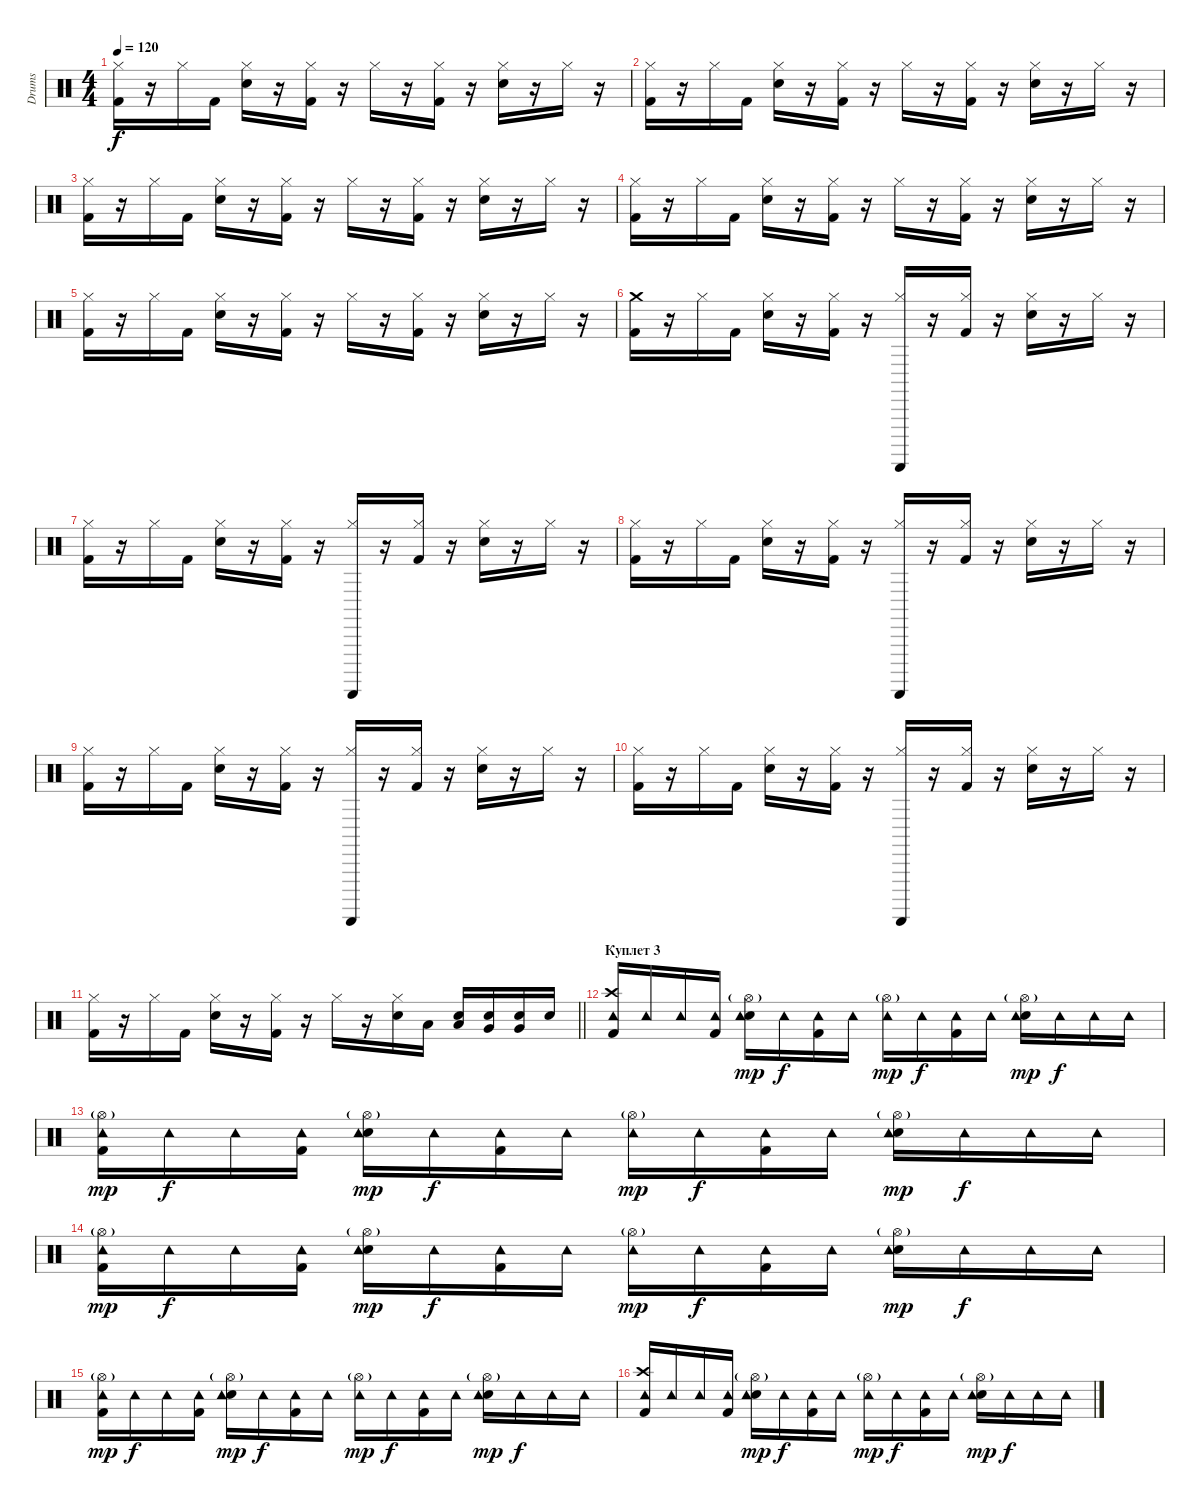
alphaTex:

\track ("Drums" "Drums") {instrument percussion}
\staff {score}
\articulation defaults
\ts (4 4)
\tempo 120
\clef neutral
\ks c
("Hi-Hat (closed)" "Kick (hit) 2").16{dy f} r.16 "Hi-Hat (closed)".16 "Kick (hit) 2".16 ("Hi-Hat (closed)" "Electric Snare (hit)").16 r.16 ("Hi-Hat (closed)" "Kick (hit) 2").16 r.16 "Hi-Hat (closed)".16 r.16 ("Hi-Hat (closed)" "Kick (hit) 2").16 r.16 ("Hi-Hat (closed)" "Electric Snare (hit)").16 r.16 "Hi-Hat (closed)".16 r.16 |
("Hi-Hat (closed)" "Kick (hit) 2").16 r.16 "Hi-Hat (closed)".16 "Kick (hit) 2".16 ("Hi-Hat (closed)" "Electric Snare (hit)").16 r.16 ("Hi-Hat (closed)" "Kick (hit) 2").16 r.16 "Hi-Hat (closed)".16 r.16 ("Hi-Hat (closed)" "Kick (hit) 2").16 r.16 ("Hi-Hat (closed)" "Electric Snare (hit)").16 r.16 "Hi-Hat (closed)".16 r.16 |
("Hi-Hat (closed)" "Kick (hit) 2").16 r.16 "Hi-Hat (closed)".16 "Kick (hit) 2".16 ("Hi-Hat (closed)" "Electric Snare (hit)").16 r.16 ("Hi-Hat (closed)" "Kick (hit) 2").16 r.16 "Hi-Hat (closed)".16 r.16 ("Hi-Hat (closed)" "Kick (hit) 2").16 r.16 ("Hi-Hat (closed)" "Electric Snare (hit)").16 r.16 "Hi-Hat (closed)".16 r.16 |
("Hi-Hat (closed)" "Kick (hit) 2").16 r.16 "Hi-Hat (closed)".16 "Kick (hit) 2".16 ("Hi-Hat (closed)" "Electric Snare (hit)").16 r.16 ("Hi-Hat (closed)" "Kick (hit) 2").16 r.16 "Hi-Hat (closed)".16 r.16 ("Hi-Hat (closed)" "Kick (hit) 2").16 r.16 ("Hi-Hat (closed)" "Electric Snare (hit)").16 r.16 "Hi-Hat (closed)".16 r.16 |
("Hi-Hat (closed)" "Kick (hit) 2").16 r.16 "Hi-Hat (closed)".16 "Kick (hit) 2".16 ("Hi-Hat (closed)" "Electric Snare (hit)").16 r.16 ("Hi-Hat (closed)" "Kick (hit) 2").16 r.16 "Hi-Hat (closed)".16 r.16 ("Hi-Hat (closed)" "Kick (hit) 2").16 r.16 ("Hi-Hat (closed)" "Electric Snare (hit)").16 r.16 "Hi-Hat (closed)".16 r.16 |
("Crash medium (hit)" "Kick (hit) 2").16 r.16 "Hi-Hat (closed)".16 "Kick (hit) 2".16 ("Hi-Hat (closed)" "Electric Snare (hit)").16 r.16 ("Hi-Hat (closed)" "Kick (hit) 2").16 r.16 ("Hi-Hat (closed)" "Guiro (scrap-return)").16 r.16 ("Hi-Hat (closed)" "Kick (hit) 2").16 r.16 ("Hi-Hat (closed)" "Electric Snare (hit)").16 r.16 "Hi-Hat (closed)".16 r.16 |
("Hi-Hat (closed)" "Kick (hit) 2").16 r.16 "Hi-Hat (closed)".16 "Kick (hit) 2".16 ("Hi-Hat (closed)" "Electric Snare (hit)").16 r.16 ("Hi-Hat (closed)" "Kick (hit) 2").16 r.16 ("Hi-Hat (closed)" "Guiro (scrap-return)").16 r.16 ("Hi-Hat (closed)" "Kick (hit) 2").16 r.16 ("Hi-Hat (closed)" "Electric Snare (hit)").16 r.16 "Hi-Hat (closed)".16 r.16 |
("Hi-Hat (closed)" "Kick (hit) 2").16 r.16 "Hi-Hat (closed)".16 "Kick (hit) 2".16 ("Hi-Hat (closed)" "Electric Snare (hit)").16 r.16 ("Hi-Hat (closed)" "Kick (hit) 2").16 r.16 ("Hi-Hat (closed)" "Guiro (scrap-return)").16 r.16 ("Hi-Hat (closed)" "Kick (hit) 2").16 r.16 ("Hi-Hat (closed)" "Electric Snare (hit)").16 r.16 "Hi-Hat (closed)".16 r.16 |
("Hi-Hat (closed)" "Kick (hit) 2").16 r.16 "Hi-Hat (closed)".16 "Kick (hit) 2".16 ("Hi-Hat (closed)" "Electric Snare (hit)").16 r.16 ("Hi-Hat (closed)" "Kick (hit) 2").16 r.16 ("Hi-Hat (closed)" "Guiro (scrap-return)").16 r.16 ("Hi-Hat (closed)" "Kick (hit) 2").16 r.16 ("Hi-Hat (closed)" "Electric Snare (hit)").16 r.16 "Hi-Hat (closed)".16 r.16 |
("Hi-Hat (closed)" "Kick (hit) 2").16 r.16 "Hi-Hat (closed)".16 "Kick (hit) 2".16 ("Hi-Hat (closed)" "Electric Snare (hit)").16 r.16 ("Hi-Hat (closed)" "Kick (hit) 2").16 r.16 ("Hi-Hat (closed)" "Guiro (scrap-return)").16 r.16 ("Hi-Hat (closed)" "Kick (hit) 2").16 r.16 ("Hi-Hat (closed)" "Electric Snare (hit)").16 r.16 "Hi-Hat (closed)".16 r.16 |
\barLineRight lightlight
("Hi-Hat (closed)" "Kick (hit) 2").16 r.16 "Hi-Hat (closed)".16 "Kick (hit) 2".16 ("Hi-Hat (closed)" "Electric Snare (hit)").16 r.16 ("Hi-Hat (closed)" "Kick (hit) 2").16 r.16 "Hi-Hat (closed)".16 r.16 ("Hi-Hat (closed)" "Electric Snare (hit)").16 "Low Tom (hit)".16 ("Electric Snare (hit)" "Low Tom (hit)").16 ("Electric Snare (hit)" "Very Low Tom (hit)").16 ("Electric Snare (hit)" "Very Low Tom (hit)").16 "Electric Snare (hit)".16 |
\section ("" "Куплет 3")
("Crash high (hit)" "Kick (hit) 2" "Tambourine (hit)").16 "Tambourine (hit)".16 "Tambourine (hit)".16 ("Kick (hit) 2" "Tambourine (hit)").16 ("Hi-Hat (open)"{g} "Electric Snare (hit)" "Tambourine (hit)").16{dy mp} "Tambourine (hit)".16{dy f} ("Kick (hit) 2" "Tambourine (hit)").16 "Tambourine (hit)".16 ("Hi-Hat (open)"{g} "Tambourine (hit)").16{dy mp} "Tambourine (hit)".16{dy f} ("Kick (hit) 2" "Tambourine (hit)").16 "Tambourine (hit)".16 ("Hi-Hat (open)"{g} "Electric Snare (hit)" "Tambourine (hit)").16{dy mp} "Tambourine (hit)".16{dy f} "Tambourine (hit)".16 "Tambourine (hit)".16 |
("Hi-Hat (open)"{g} "Kick (hit) 2" "Tambourine (hit)").16{dy mp} "Tambourine (hit)".16{dy f} "Tambourine (hit)".16 ("Kick (hit) 2" "Tambourine (hit)").16 ("Hi-Hat (open)"{g} "Electric Snare (hit)" "Tambourine (hit)").16{dy mp} "Tambourine (hit)".16{dy f} ("Kick (hit) 2" "Tambourine (hit)").16 "Tambourine (hit)".16 ("Hi-Hat (open)"{g} "Tambourine (hit)").16{dy mp} "Tambourine (hit)".16{dy f} ("Kick (hit) 2" "Tambourine (hit)").16 "Tambourine (hit)".16 ("Hi-Hat (open)"{g} "Electric Snare (hit)" "Tambourine (hit)").16{dy mp} "Tambourine (hit)".16{dy f} "Tambourine (hit)".16 "Tambourine (hit)".16 |
("Hi-Hat (open)"{g} "Kick (hit) 2" "Tambourine (hit)").16{dy mp} "Tambourine (hit)".16{dy f} "Tambourine (hit)".16 ("Kick (hit) 2" "Tambourine (hit)").16 ("Hi-Hat (open)"{g} "Electric Snare (hit)" "Tambourine (hit)").16{dy mp} "Tambourine (hit)".16{dy f} ("Kick (hit) 2" "Tambourine (hit)").16 "Tambourine (hit)".16 ("Hi-Hat (open)"{g} "Tambourine (hit)").16{dy mp} "Tambourine (hit)".16{dy f} ("Kick (hit) 2" "Tambourine (hit)").16 "Tambourine (hit)".16 ("Hi-Hat (open)"{g} "Electric Snare (hit)" "Tambourine (hit)").16{dy mp} "Tambourine (hit)".16{dy f} "Tambourine (hit)".16 "Tambourine (hit)".16 |
("Hi-Hat (open)"{g} "Kick (hit) 2" "Tambourine (hit)").16{dy mp} "Tambourine (hit)".16{dy f} "Tambourine (hit)".16 ("Kick (hit) 2" "Tambourine (hit)").16 ("Hi-Hat (open)"{g} "Electric Snare (hit)" "Tambourine (hit)").16{dy mp} "Tambourine (hit)".16{dy f} ("Kick (hit) 2" "Tambourine (hit)").16 "Tambourine (hit)".16 ("Hi-Hat (open)"{g} "Tambourine (hit)").16{dy mp} "Tambourine (hit)".16{dy f} ("Kick (hit) 2" "Tambourine (hit)").16 "Tambourine (hit)".16 ("Hi-Hat (open)"{g} "Electric Snare (hit)" "Tambourine (hit)").16{dy mp} "Tambourine (hit)".16{dy f} "Tambourine (hit)".16 "Tambourine (hit)".16 |
("Crash high (hit)" "Kick (hit) 2" "Tambourine (hit)").16 "Tambourine (hit)".16 "Tambourine (hit)".16 ("Kick (hit) 2" "Tambourine (hit)").16 ("Hi-Hat (open)"{g} "Electric Snare (hit)" "Tambourine (hit)").16{dy mp} "Tambourine (hit)".16{dy f} ("Kick (hit) 2" "Tambourine (hit)").16 "Tambourine (hit)".16 ("Hi-Hat (open)"{g} "Tambourine (hit)").16{dy mp} "Tambourine (hit)".16{dy f} ("Kick (hit) 2" "Tambourine (hit)").16 "Tambourine (hit)".16 ("Hi-Hat (open)"{g} "Electric Snare (hit)" "Tambourine (hit)").16{dy mp} "Tambourine (hit)".16{dy f} "Tambourine (hit)".16 "Tambourine (hit)".16
